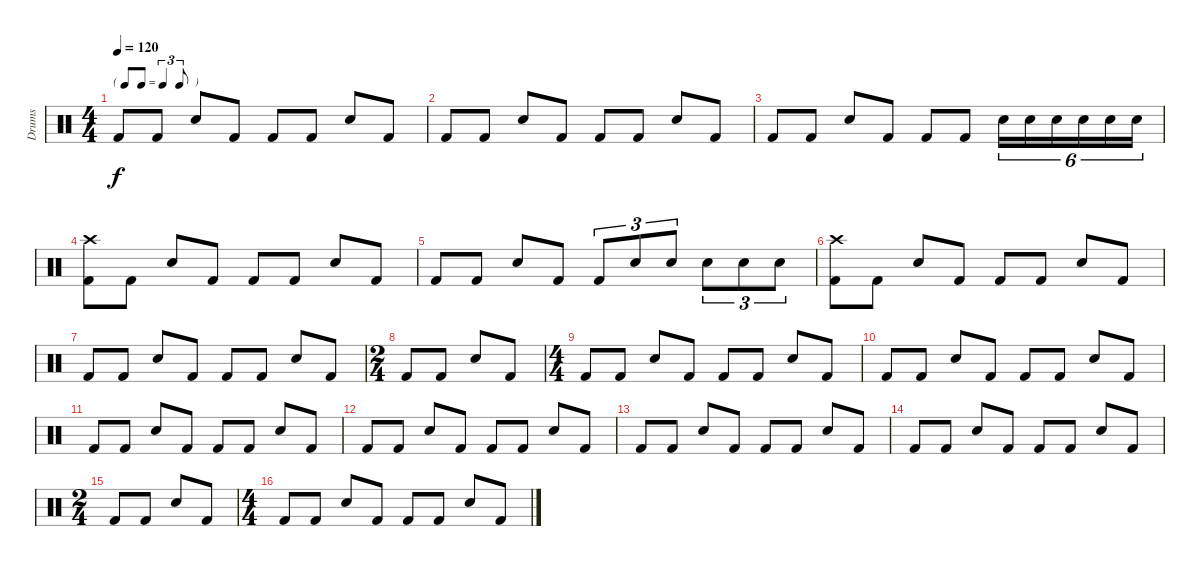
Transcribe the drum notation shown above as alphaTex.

\track ("Drums" "Drums") {instrument percussion}
\staff {score}
\articulation defaults
\ts (4 4)
\tf triplet8th
\tempo 120
\clef neutral
\ks c "Kick (hit) 2".8{dy f} "Kick (hit) 2".8 "Snare (hit) 2".8 "Kick (hit) 2".8 "Kick (hit) 2".8 "Kick (hit) 2".8 "Snare (hit) 2".8 "Kick (hit) 2".8
|
"Kick (hit) 2".8 "Kick (hit) 2".8 "Snare (hit) 2".8 "Kick (hit) 2".8 "Kick (hit) 2".8 "Kick (hit) 2".8 "Snare (hit) 2".8 "Kick (hit) 2".8 |
"Kick (hit) 2".8 "Kick (hit) 2".8 "Snare (hit) 2".8 "Kick (hit) 2".8 "Kick (hit) 2".8 "Kick (hit) 2".8 "Snare (hit) 2".16{tu (6 4)} "Snare (hit) 2".16{tu (6 4)} "Snare (hit) 2".16{tu (6 4)} "Snare (hit) 2".16{tu (6 4)} "Snare (hit) 2".16{tu (6 4)} "Snare (hit) 2".16{tu (6 4)} |
("Crash high (hit)" "Kick (hit) 2").8 "Kick (hit) 2".8 "Snare (hit) 2".8 "Kick (hit) 2".8 "Kick (hit) 2".8 "Kick (hit) 2".8 "Snare (hit) 2".8 "Kick (hit) 2".8 |
"Kick (hit) 2".8 "Kick (hit) 2".8 "Snare (hit) 2".8 "Kick (hit) 2".8 "Kick (hit) 2".8{tu (3 2)} "Snare (hit) 2".8{tu (3 2)} "Snare (hit) 2".8{tu (3 2)} "Snare (hit) 2".8{tu (3 2)} "Snare (hit) 2".8{tu (3 2)} "Snare (hit) 2".8{tu (3 2)} |
("Crash high (hit)" "Kick (hit) 2").8 "Kick (hit) 2".8 "Snare (hit) 2".8 "Kick (hit) 2".8 "Kick (hit) 2".8 "Kick (hit) 2".8 "Snare (hit) 2".8 "Kick (hit) 2".8 |
"Kick (hit) 2".8 "Kick (hit) 2".8 "Snare (hit) 2".8 "Kick (hit) 2".8 "Kick (hit) 2".8 "Kick (hit) 2".8 "Snare (hit) 2".8 "Kick (hit) 2".8 |
\ts (2 4)
"Kick (hit) 2".8 "Kick (hit) 2".8 "Snare (hit) 2".8 "Kick (hit) 2".8 |
\ts (4 4)
"Kick (hit) 2".8 "Kick (hit) 2".8 "Snare (hit) 2".8 "Kick (hit) 2".8 "Kick (hit) 2".8 "Kick (hit) 2".8 "Snare (hit) 2".8 "Kick (hit) 2".8 |
"Kick (hit) 2".8 "Kick (hit) 2".8 "Snare (hit) 2".8 "Kick (hit) 2".8 "Kick (hit) 2".8 "Kick (hit) 2".8 "Snare (hit) 2".8 "Kick (hit) 2".8 |
"Kick (hit) 2".8 "Kick (hit) 2".8 "Snare (hit) 2".8 "Kick (hit) 2".8 "Kick (hit) 2".8 "Kick (hit) 2".8 "Snare (hit) 2".8 "Kick (hit) 2".8 |
"Kick (hit) 2".8 "Kick (hit) 2".8 "Snare (hit) 2".8 "Kick (hit) 2".8 "Kick (hit) 2".8 "Kick (hit) 2".8 "Snare (hit) 2".8 "Kick (hit) 2".8 |
"Kick (hit) 2".8 "Kick (hit) 2".8 "Snare (hit) 2".8 "Kick (hit) 2".8 "Kick (hit) 2".8 "Kick (hit) 2".8 "Snare (hit) 2".8 "Kick (hit) 2".8 |
"Kick (hit) 2".8 "Kick (hit) 2".8 "Snare (hit) 2".8 "Kick (hit) 2".8 "Kick (hit) 2".8 "Kick (hit) 2".8 "Snare (hit) 2".8 "Kick (hit) 2".8 |
\ts (2 4)
"Kick (hit) 2".8 "Kick (hit) 2".8 "Snare (hit) 2".8 "Kick (hit) 2".8 |
\ts (4 4)
"Kick (hit) 2".8 "Kick (hit) 2".8 "Snare (hit) 2".8 "Kick (hit) 2".8 "Kick (hit) 2".8 "Kick (hit) 2".8 "Snare (hit) 2".8 "Kick (hit) 2".8
